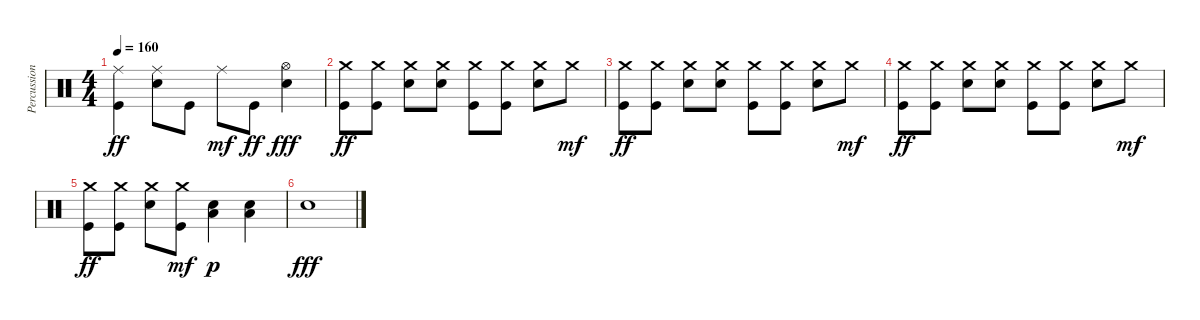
\track ("Percussion" "Percussion") {instrument percussion}
\staff {score}
\articulation defaults
\ts (4 4)
\tempo 160
\clef neutral
\ks c
("Ride (middle)" "Kick (hit)").4{dy ff} ("Ride (middle)" "Electric Snare (hit)").8 "Kick (hit)".8 "Ride (middle)".8{dy mf} "Kick (hit)".8{dy ff} ("Hi-Hat (open)" "Electric Snare (hit)").4{dy fff} |
("Crash medium (hit)" "Kick (hit)").8{dy ff} ("Crash medium (hit)" "Kick (hit)").8 ("Crash medium (hit)" "Electric Snare (hit)").8 ("Crash medium (hit)" "Electric Snare (hit)").8 ("Crash medium (hit)" "Kick (hit)").8 ("Crash medium (hit)" "Kick (hit)").8 ("Crash medium (hit)" "Electric Snare (hit)").8 "Crash medium (hit)".8{dy mf} |
("Crash medium (hit)" "Kick (hit)").8{dy ff} ("Crash medium (hit)" "Kick (hit)").8 ("Crash medium (hit)" "Electric Snare (hit)").8 ("Crash medium (hit)" "Electric Snare (hit)").8 ("Crash medium (hit)" "Kick (hit)").8 ("Crash medium (hit)" "Kick (hit)").8 ("Crash medium (hit)" "Electric Snare (hit)").8 "Crash medium (hit)".8{dy mf} |
("Crash medium (hit)" "Kick (hit)").8{dy ff} ("Crash medium (hit)" "Kick (hit)").8 ("Crash medium (hit)" "Electric Snare (hit)").8 ("Crash medium (hit)" "Electric Snare (hit)").8 ("Crash medium (hit)" "Kick (hit)").8 ("Crash medium (hit)" "Kick (hit)").8 ("Crash medium (hit)" "Electric Snare (hit)").8 "Crash medium (hit)".8{dy mf} |
("Crash medium (hit)" "Kick (hit)").8{dy ff} ("Crash medium (hit)" "Kick (hit)").8 ("Crash medium (hit)" "Electric Snare (hit)").8 ("Crash medium (hit)" "Kick (hit)").8{dy mf} ("Electric Snare (hit)" "Low Floor Tom (hit)").4{dy p} ("Electric Snare (hit)" "Low Floor Tom (hit)").4 |
"Electric Snare (hit)".1{dy fff}
